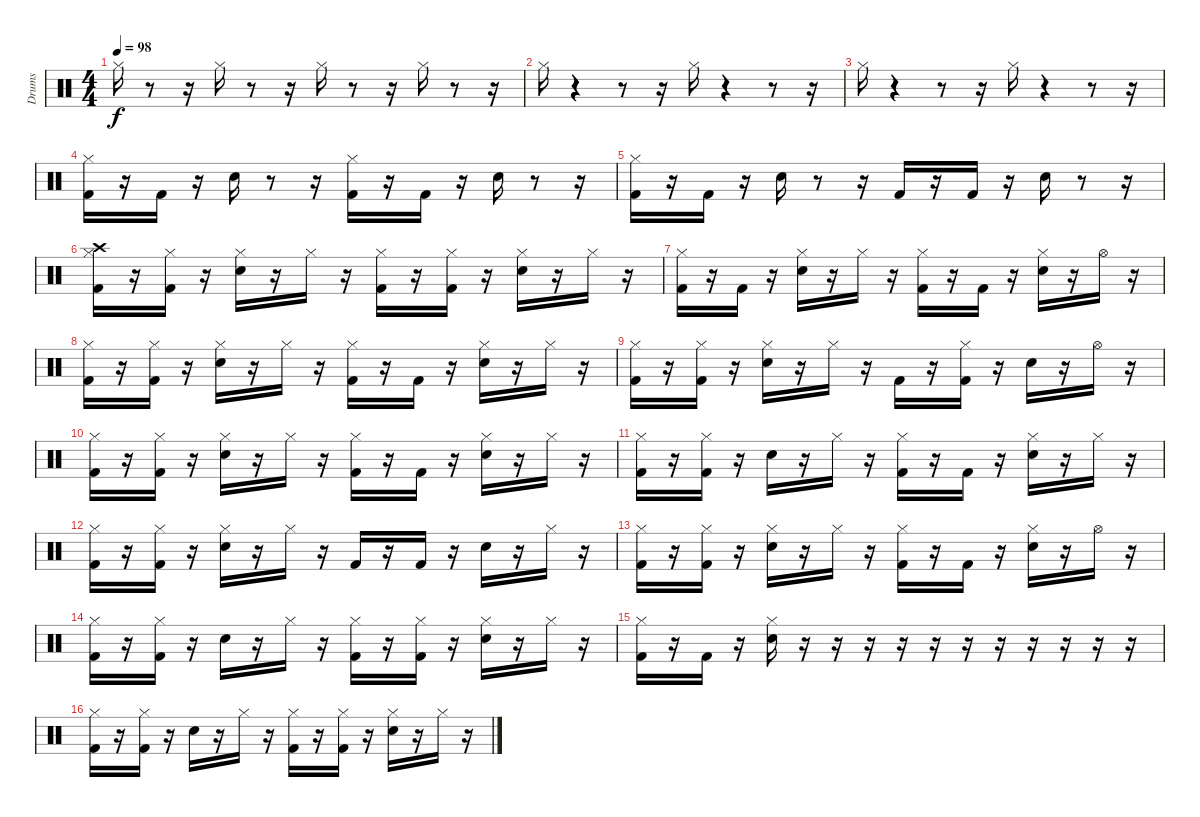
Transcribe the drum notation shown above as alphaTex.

\track ("Drums" "Drums") {instrument percussion}
\staff {score}
\articulation defaults
\ts (4 4)
\tempo 98
\clef neutral
\ks c "Hi-Hat (closed)".16{dy f}
r.8 r.16 "Hi-Hat (closed)".16 r.8 r.16 "Hi-Hat (closed)".16 r.8 r.16 "Hi-Hat (closed)".16 r.8 r.16 |
"Hi-Hat (closed)".16 r.4 r.8 r.16 "Hi-Hat (closed)".16 r.4 r.8 r.16 |
"Hi-Hat (closed)".16 r.4 r.8 r.16 "Hi-Hat (closed)".16 r.4 r.8 r.16 |
("Kick (hit) 2" "Hi-Hat (closed)").16 r.16 "Kick (hit) 2".16 r.16 "Snare (hit) 2".16 r.8 r.16 ("Kick (hit) 2" "Hi-Hat (closed)").16 r.16 "Kick (hit) 2".16 r.16 "Snare (hit) 2".16 r.8 r.16 |
("Kick (hit) 2" "Hi-Hat (closed)").16 r.16 "Kick (hit) 2".16 r.16 "Snare (hit) 2".16 r.8 r.16 "Kick (hit) 2".16 r.16 "Kick (hit) 2".16 r.16 "Snare (hit) 2".16 r.8 r.16 |
("Kick (hit) 2" "Hi-Hat (closed)" "Crash high (hit)").16 r.16 ("Kick (hit) 2" "Hi-Hat (closed)").16 r.16 ("Snare (hit) 2" "Hi-Hat (closed)").16 r.16 "Hi-Hat (closed)".16 r.16 ("Kick (hit) 2" "Hi-Hat (closed)").16 r.16 ("Kick (hit) 2" "Hi-Hat (closed)").16 r.16 ("Snare (hit) 2" "Hi-Hat (closed)").16 r.16 "Hi-Hat (closed)".16 r.16 |
("Kick (hit) 2" "Hi-Hat (closed)").16 r.16 "Kick (hit) 2".16 r.16 ("Snare (hit) 2" "Hi-Hat (closed)").16 r.16 "Hi-Hat (closed)".16 r.16 ("Kick (hit) 2" "Hi-Hat (closed)").16 r.16 "Kick (hit) 2".16 r.16 ("Snare (hit) 2" "Hi-Hat (closed)").16 r.16 "Hi-Hat (open)".16 r.16 |
("Kick (hit) 2" "Hi-Hat (closed)").16 r.16 ("Kick (hit) 2" "Hi-Hat (closed)").16 r.16 ("Snare (hit) 2" "Hi-Hat (closed)").16 r.16 "Hi-Hat (closed)".16 r.16 ("Kick (hit) 2" "Hi-Hat (closed)").16 r.16 "Kick (hit) 2".16 r.16 ("Snare (hit) 2" "Hi-Hat (closed)").16 r.16 "Hi-Hat (closed)".16 r.16 |
("Kick (hit) 2" "Hi-Hat (closed)").16 r.16 ("Kick (hit) 2" "Hi-Hat (closed)").16 r.16 ("Snare (hit) 2" "Hi-Hat (closed)").16 r.16 "Hi-Hat (closed)".16 r.16 "Kick (hit) 2".16 r.16 ("Kick (hit) 2" "Hi-Hat (closed)").16 r.16 "Snare (hit) 2".16 r.16 "Hi-Hat (open)".16 r.16 |
("Kick (hit) 2" "Hi-Hat (closed)").16 r.16 ("Kick (hit) 2" "Hi-Hat (closed)").16 r.16 ("Snare (hit) 2" "Hi-Hat (closed)").16 r.16 "Hi-Hat (closed)".16 r.16 ("Kick (hit) 2" "Hi-Hat (closed)").16 r.16 "Kick (hit) 2".16 r.16 ("Snare (hit) 2" "Hi-Hat (closed)").16 r.16 "Hi-Hat (closed)".16 r.16 |
("Kick (hit) 2" "Hi-Hat (closed)").16 r.16 ("Kick (hit) 2" "Hi-Hat (closed)").16 r.16 "Snare (hit) 2".16 r.16 "Hi-Hat (closed)".16 r.16 ("Kick (hit) 2" "Hi-Hat (closed)").16 r.16 "Kick (hit) 2".16 r.16 ("Snare (hit) 2" "Hi-Hat (closed)").16 r.16 "Hi-Hat (closed)".16 r.16 |
("Kick (hit) 2" "Hi-Hat (closed)").16 r.16 ("Kick (hit) 2" "Hi-Hat (closed)").16 r.16 ("Snare (hit) 2" "Hi-Hat (closed)").16 r.16 "Hi-Hat (closed)".16 r.16 "Kick (hit) 2".16 r.16 "Kick (hit) 2".16 r.16 "Snare (hit) 2".16 r.16 "Hi-Hat (closed)".16 r.16 |
("Kick (hit) 2" "Hi-Hat (closed)").16 r.16 ("Kick (hit) 2" "Hi-Hat (closed)").16 r.16 ("Snare (hit) 2" "Hi-Hat (closed)").16 r.16 "Hi-Hat (closed)".16 r.16 ("Kick (hit) 2" "Hi-Hat (closed)").16 r.16 "Kick (hit) 2".16 r.16 ("Snare (hit) 2" "Hi-Hat (closed)").16 r.16 "Hi-Hat (open)".16 r.16 |
("Kick (hit) 2" "Hi-Hat (closed)").16 r.16 ("Kick (hit) 2" "Hi-Hat (closed)").16 r.16 "Snare (hit) 2".16 r.16 "Hi-Hat (closed)".16 r.16 ("Kick (hit) 2" "Hi-Hat (closed)").16 r.16 ("Kick (hit) 2" "Hi-Hat (closed)").16 r.16 ("Snare (hit) 2" "Hi-Hat (closed)").16 r.16 "Hi-Hat (closed)".16 r.16 |
("Kick (hit) 2" "Hi-Hat (closed)").16 r.16 "Kick (hit) 2".16 r.16 ("Snare (hit) 2" "Hi-Hat (closed)").16 r.16 r.16 r.16 r.16 r.16 r.16 r.16 r.16 r.16 r.16 r.16 |
("Kick (hit) 2" "Hi-Hat (closed)").16 r.16 ("Kick (hit) 2" "Hi-Hat (closed)").16 r.16 "Snare (hit) 2".16 r.16 "Hi-Hat (closed)".16 r.16 ("Kick (hit) 2" "Hi-Hat (closed)").16 r.16 ("Kick (hit) 2" "Hi-Hat (closed)").16 r.16 ("Snare (hit) 2" "Hi-Hat (closed)").16 r.16 "Hi-Hat (closed)".16 r.16
